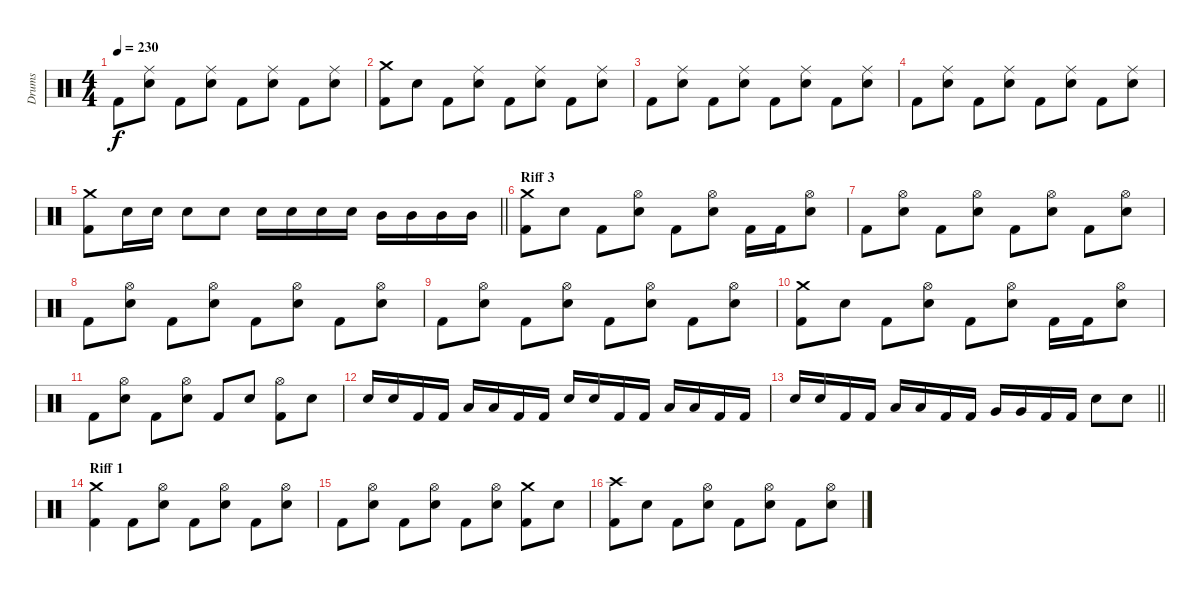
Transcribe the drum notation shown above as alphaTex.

\track ("Drums" "Drums") {instrument percussion}
\staff {score}
\articulation defaults
\ts (4 4)
\tempo 230
\clef neutral
\ks c "Kick (hit) 2".8{dy f}
("Electric Snare (hit)" "Ride (middle)").8 "Kick (hit) 2".8 ("Electric Snare (hit)" "Ride (middle)").8 "Kick (hit) 2".8 ("Electric Snare (hit)" "Ride (middle)").8 "Kick (hit) 2".8 ("Electric Snare (hit)" "Ride (middle)").8 |
("Crash medium (hit)" "Kick (hit) 2").8 "Electric Snare (hit)".8 "Kick (hit) 2".8 ("Electric Snare (hit)" "Ride (middle)").8 "Kick (hit) 2".8 ("Electric Snare (hit)" "Ride (middle)").8 "Kick (hit) 2".8 ("Electric Snare (hit)" "Ride (middle)").8 |
"Kick (hit) 2".8 ("Electric Snare (hit)" "Ride (middle)").8 "Kick (hit) 2".8 ("Electric Snare (hit)" "Ride (middle)").8 "Kick (hit) 2".8 ("Electric Snare (hit)" "Ride (middle)").8 "Kick (hit) 2".8 ("Electric Snare (hit)" "Ride (middle)").8 |
"Kick (hit) 2".8 ("Electric Snare (hit)" "Ride (middle)").8 "Kick (hit) 2".8 ("Electric Snare (hit)" "Ride (middle)").8 "Kick (hit) 2".8 ("Electric Snare (hit)" "Ride (middle)").8 "Kick (hit) 2".8 ("Electric Snare (hit)" "Ride (middle)").8 |
\barLineRight lightlight
("Crash medium (hit)" "Kick (hit) 2").8 "Electric Snare (hit)".16 "Electric Snare (hit)".16 "Electric Snare (hit)".8 "Electric Snare (hit)".8 "Electric Snare (hit)".16 "Electric Snare (hit)".16 "Electric Snare (hit)".16 "Electric Snare (hit)".16 "Mid Tom (hit)".16 "Mid Tom (hit)".16 "Mid Tom (hit)".16 "Mid Tom (hit)".16 |
\section ("" "Riff 3")
("Crash medium (hit)" "Kick (hit) 2").8 "Electric Snare (hit)".8 "Kick (hit) 2".8 ("Hi-Hat (open)" "Electric Snare (hit)").8 "Kick (hit) 2".8 ("Electric Snare (hit)" "Hi-Hat (open)").8 "Kick (hit) 2".16 "Kick (hit) 2".16 ("Electric Snare (hit)" "Hi-Hat (open)").8 |
"Kick (hit) 2".8 ("Electric Snare (hit)" "Hi-Hat (open)").8 "Kick (hit) 2".8 ("Electric Snare (hit)" "Hi-Hat (open)").8 "Kick (hit) 2".8 ("Electric Snare (hit)" "Hi-Hat (open)").8 "Kick (hit) 2".8 ("Electric Snare (hit)" "Hi-Hat (open)").8 |
"Kick (hit) 2".8 ("Electric Snare (hit)" "Hi-Hat (open)").8 "Kick (hit) 2".8 ("Electric Snare (hit)" "Hi-Hat (open)").8 "Kick (hit) 2".8 ("Electric Snare (hit)" "Hi-Hat (open)").8 "Kick (hit) 2".8 ("Electric Snare (hit)" "Hi-Hat (open)").8 |
"Kick (hit) 2".8 ("Electric Snare (hit)" "Hi-Hat (open)").8 "Kick (hit) 2".8 ("Electric Snare (hit)" "Hi-Hat (open)").8 "Kick (hit) 2".8 ("Electric Snare (hit)" "Hi-Hat (open)").8 "Kick (hit) 2".8 ("Electric Snare (hit)" "Hi-Hat (open)").8 |
("Crash medium (hit)" "Kick (hit) 2").8 "Electric Snare (hit)".8 "Kick (hit) 2".8 ("Hi-Hat (open)" "Electric Snare (hit)").8 "Kick (hit) 2".8 ("Electric Snare (hit)" "Hi-Hat (open)").8 "Kick (hit) 2".16 "Kick (hit) 2".16 ("Electric Snare (hit)" "Hi-Hat (open)").8 |
"Kick (hit) 2".8 ("Electric Snare (hit)" "Hi-Hat (open)").8 "Kick (hit) 2".8 ("Electric Snare (hit)" "Hi-Hat (open)").8 "Kick (hit) 2".8 "Electric Snare (hit)".8 ("Kick (hit) 2" "Hi-Hat (open)").8 "Electric Snare (hit)".8 |
"Electric Snare (hit)".16 "Electric Snare (hit)".16 "Kick (hit) 2".16 "Kick (hit) 2".16 "Low Tom (hit)".16 "Low Tom (hit)".16 "Kick (hit) 2".16 "Kick (hit) 2".16 "Electric Snare (hit)".16 "Electric Snare (hit)".16 "Kick (hit) 2".16 "Kick (hit) 2".16 "Low Tom (hit)".16 "Low Tom (hit)".16 "Kick (hit) 2".16 "Kick (hit) 2".16 |
\barLineRight lightlight "Electric Snare (hit)".16 "Electric Snare (hit)".16 "Kick (hit) 2".16 "Kick (hit) 2".16 "Low Tom (hit)".16 "Low Tom (hit)".16 "Kick (hit) 2".16 "Kick (hit) 2".16 "Very Low Tom (hit)".16 "Very Low Tom (hit)".16 "Kick (hit) 2".16 "Kick (hit) 2".16 "Electric Snare (hit)".8 "Electric Snare (hit)".8
|
\section ("" "Riff 1")
("Crash medium (hit)" "Kick (hit) 2").4 "Kick (hit) 2".8 ("Hi-Hat (open)" "Electric Snare (hit)").8 "Kick (hit) 2".8 ("Hi-Hat (open)" "Electric Snare (hit)").8 "Kick (hit) 2".8 ("Hi-Hat (open)" "Electric Snare (hit)").8 |
"Kick (hit) 2".8 ("Hi-Hat (open)" "Electric Snare (hit)").8 "Kick (hit) 2".8 ("Hi-Hat (open)" "Electric Snare (hit)").8 "Kick (hit) 2".8 ("Hi-Hat (open)" "Electric Snare (hit)").8 ("Crash medium (hit)" "Kick (hit) 2").8 "Electric Snare (hit)".8 |
("Kick (hit) 2" "Crash high (hit)").8 "Electric Snare (hit)".8 "Kick (hit) 2".8 ("Electric Snare (hit)" "Hi-Hat (open)").8 "Kick (hit) 2".8 ("Electric Snare (hit)" "Hi-Hat (open)").8 "Kick (hit) 2".8 ("Electric Snare (hit)" "Hi-Hat (open)").8
